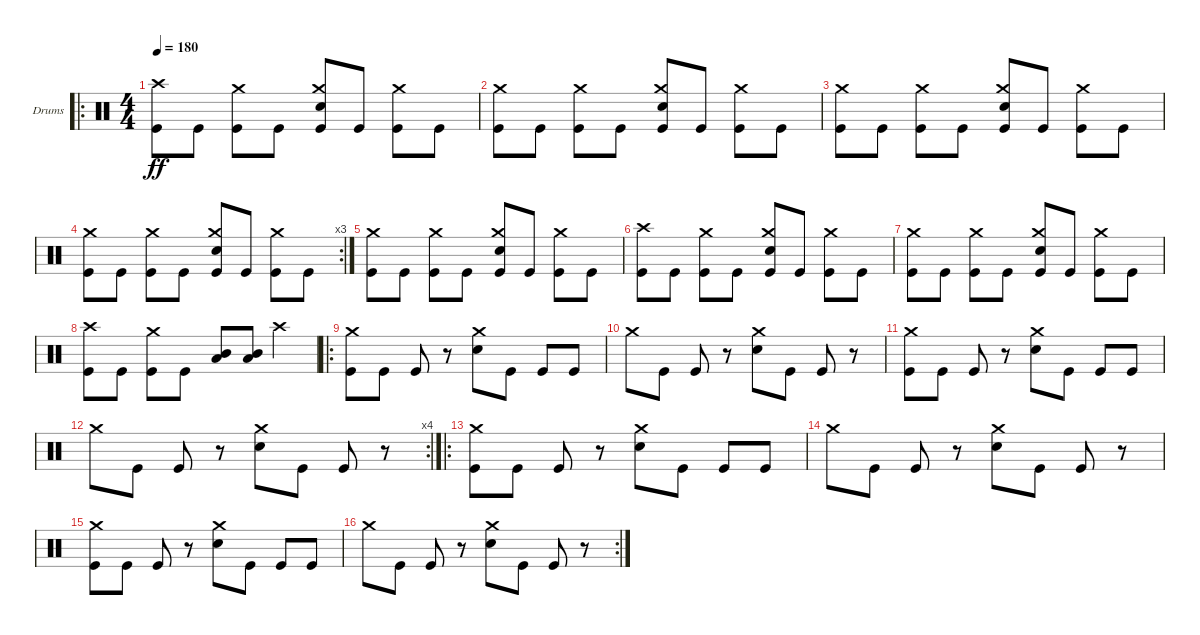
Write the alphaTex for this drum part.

\bracketExtendMode groupsimilarinstruments
\firstSystemTrackNameOrientation horizontal
\otherSystemsTrackNameOrientation horizontal
\track ("Drumkit" "Drums") {instrument percussion}
\staff {score}
\articulation defaults
\ro
\ts (4 4)
\tempo 180
\clef neutral
\ks c
("Kick (hit)" "Crash high (hit)").8{dy ff} "Kick (hit)".8 ("Kick (hit)" "Crash medium (hit)").8 "Kick (hit)".8 ("Kick (hit)" "Crash medium (hit)" "Snare (hit) 2").8 "Kick (hit)".8 ("Kick (hit)" "Crash medium (hit)").8 "Kick (hit)".8 |
("Kick (hit)" "Crash medium (hit)").8 "Kick (hit)".8 ("Kick (hit)" "Crash medium (hit)").8 "Kick (hit)".8 ("Kick (hit)" "Crash medium (hit)" "Snare (hit) 2").8 "Kick (hit)".8 ("Kick (hit)" "Crash medium (hit)").8 "Kick (hit)".8 |
("Kick (hit)" "Crash medium (hit)").8 "Kick (hit)".8 ("Kick (hit)" "Crash medium (hit)").8 "Kick (hit)".8 ("Kick (hit)" "Crash medium (hit)" "Snare (hit) 2").8 "Kick (hit)".8 ("Kick (hit)" "Crash medium (hit)").8 "Kick (hit)".8 |
\rc 3
("Kick (hit)" "Crash medium (hit)").8 "Kick (hit)".8 ("Kick (hit)" "Crash medium (hit)").8 "Kick (hit)".8 ("Kick (hit)" "Crash medium (hit)" "Snare (hit) 2").8 "Kick (hit)".8 ("Kick (hit)" "Crash medium (hit)").8 "Kick (hit)".8 |
("Kick (hit)" "Crash medium (hit)").8 "Kick (hit)".8 ("Kick (hit)" "Crash medium (hit)").8 "Kick (hit)".8 ("Kick (hit)" "Crash medium (hit)" "Snare (hit) 2").8 "Kick (hit)".8 ("Kick (hit)" "Crash medium (hit)").8 "Kick (hit)".8 |
("Kick (hit)" "Crash high (hit)").8 "Kick (hit)".8 ("Kick (hit)" "Crash medium (hit)").8 "Kick (hit)".8 ("Kick (hit)" "Crash medium (hit)" "Snare (hit) 2").8 "Kick (hit)".8 ("Kick (hit)" "Crash medium (hit)").8 "Kick (hit)".8 |
("Kick (hit)" "Crash medium (hit)").8 "Kick (hit)".8 ("Kick (hit)" "Crash medium (hit)").8 "Kick (hit)".8 ("Kick (hit)" "Crash medium (hit)" "Snare (hit) 2").8 "Kick (hit)".8 ("Kick (hit)" "Crash medium (hit)").8 "Kick (hit)".8 |
("Kick (hit)" "Crash high (hit)").8 "Kick (hit)".8 ("Kick (hit)" "Crash medium (hit)").8 "Kick (hit)".8 ("Mid Tom (hit)" "Low Tom (hit)").8 ("Low Tom (hit)" "Mid Tom (hit)").8 "Crash high (hit)".4 |
\ro
("Crash medium (hit)" "Kick (hit)").8 "Kick (hit)".8 "Kick (hit)".8 r.8 ("Crash medium (hit)" "Snare (hit) 2").8 "Kick (hit)".8 "Kick (hit)".8 "Kick (hit)".8 |
"Crash medium (hit)".8 "Kick (hit)".8 "Kick (hit)".8 r.8 ("Crash medium (hit)" "Snare (hit) 2").8 "Kick (hit)".8 "Kick (hit)".8 r.8 |
("Crash medium (hit)" "Kick (hit)").8 "Kick (hit)".8 "Kick (hit)".8 r.8 ("Crash medium (hit)" "Snare (hit) 2").8 "Kick (hit)".8 "Kick (hit)".8 "Kick (hit)".8 |
\rc 4 "Crash medium (hit)".8 "Kick (hit)".8 "Kick (hit)".8
r.8 ("Crash medium (hit)" "Snare (hit) 2").8 "Kick (hit)".8 "Kick (hit)".8 r.8 |
\ro
("Crash medium (hit)" "Kick (hit)").8 "Kick (hit)".8 "Kick (hit)".8 r.8 ("Crash medium (hit)" "Snare (hit) 2").8 "Kick (hit)".8 "Kick (hit)".8 "Kick (hit)".8 |
"Crash medium (hit)".8 "Kick (hit)".8 "Kick (hit)".8 r.8 ("Crash medium (hit)" "Snare (hit) 2").8 "Kick (hit)".8 "Kick (hit)".8 r.8 |
("Crash medium (hit)" "Kick (hit)").8 "Kick (hit)".8 "Kick (hit)".8 r.8 ("Crash medium (hit)" "Snare (hit) 2").8 "Kick (hit)".8 "Kick (hit)".8 "Kick (hit)".8 |
\rc 2 "Crash medium (hit)".8 "Kick (hit)".8 "Kick (hit)".8
r.8 ("Crash medium (hit)" "Snare (hit) 2").8 "Kick (hit)".8 "Kick (hit)".8 r.8
